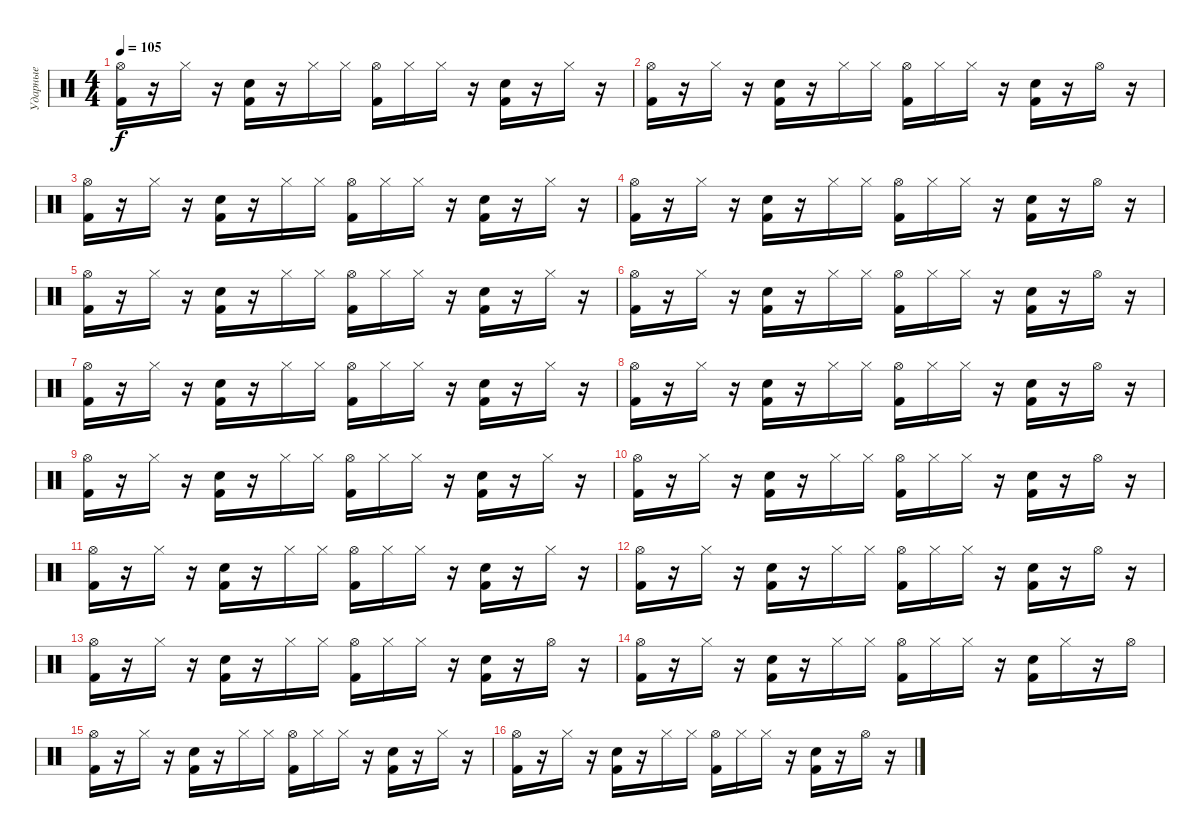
\track ("Ударные" "Ударные") {instrument percussion}
\staff {score}
\articulation defaults
\ts (4 4)
\tempo 105
\clef neutral
\ks c
("Hi-Hat (open)" "Kick (hit) 2").16{dy f} r.16 "Hi-Hat (closed)".16 r.16 ("Snare (hit) 2" "Kick (hit) 2").16 r.16 "Hi-Hat (closed)".16 "Hi-Hat (closed)".16 ("Hi-Hat (open)" "Kick (hit) 2").16 "Hi-Hat (closed)".16 "Hi-Hat (closed)".16 r.16 ("Snare (hit) 2" "Kick (hit) 2").16 r.16 "Hi-Hat (closed)".16 r.16 |
("Hi-Hat (open)" "Kick (hit) 2").16 r.16 "Hi-Hat (closed)".16 r.16 ("Snare (hit) 2" "Kick (hit) 2").16 r.16 "Hi-Hat (closed)".16 "Hi-Hat (closed)".16 ("Hi-Hat (open)" "Kick (hit) 2").16 "Hi-Hat (closed)".16 "Hi-Hat (closed)".16 r.16 ("Snare (hit) 2" "Kick (hit) 2").16 r.16 "Hi-Hat (open)".16 r.16 |
("Hi-Hat (open)" "Kick (hit) 2").16 r.16 "Hi-Hat (closed)".16 r.16 ("Snare (hit) 2" "Kick (hit) 2").16 r.16 "Hi-Hat (closed)".16 "Hi-Hat (closed)".16 ("Hi-Hat (open)" "Kick (hit) 2").16 "Hi-Hat (closed)".16 "Hi-Hat (closed)".16 r.16 ("Snare (hit) 2" "Kick (hit) 2").16 r.16 "Hi-Hat (closed)".16 r.16 |
("Hi-Hat (open)" "Kick (hit) 2").16 r.16 "Hi-Hat (closed)".16 r.16 ("Snare (hit) 2" "Kick (hit) 2").16 r.16 "Hi-Hat (closed)".16 "Hi-Hat (closed)".16 ("Hi-Hat (open)" "Kick (hit) 2").16 "Hi-Hat (closed)".16 "Hi-Hat (closed)".16 r.16 ("Snare (hit) 2" "Kick (hit) 2").16 r.16 "Hi-Hat (open)".16 r.16 |
("Hi-Hat (open)" "Kick (hit) 2").16 r.16 "Hi-Hat (closed)".16 r.16 ("Snare (hit) 2" "Kick (hit) 2").16 r.16 "Hi-Hat (closed)".16 "Hi-Hat (closed)".16 ("Hi-Hat (open)" "Kick (hit) 2").16 "Hi-Hat (closed)".16 "Hi-Hat (closed)".16 r.16 ("Snare (hit) 2" "Kick (hit) 2").16 r.16 "Hi-Hat (closed)".16 r.16 |
("Hi-Hat (open)" "Kick (hit) 2").16 r.16 "Hi-Hat (closed)".16 r.16 ("Snare (hit) 2" "Kick (hit) 2").16 r.16 "Hi-Hat (closed)".16 "Hi-Hat (closed)".16 ("Hi-Hat (open)" "Kick (hit) 2").16 "Hi-Hat (closed)".16 "Hi-Hat (closed)".16 r.16 ("Snare (hit) 2" "Kick (hit) 2").16 r.16 "Hi-Hat (open)".16 r.16 |
("Hi-Hat (open)" "Kick (hit) 2").16 r.16 "Hi-Hat (closed)".16 r.16 ("Snare (hit) 2" "Kick (hit) 2").16 r.16 "Hi-Hat (closed)".16 "Hi-Hat (closed)".16 ("Hi-Hat (open)" "Kick (hit) 2").16 "Hi-Hat (closed)".16 "Hi-Hat (closed)".16 r.16 ("Snare (hit) 2" "Kick (hit) 2").16 r.16 "Hi-Hat (closed)".16 r.16 |
("Hi-Hat (open)" "Kick (hit) 2").16 r.16 "Hi-Hat (closed)".16 r.16 ("Snare (hit) 2" "Kick (hit) 2").16 r.16 "Hi-Hat (closed)".16 "Hi-Hat (closed)".16 ("Hi-Hat (open)" "Kick (hit) 2").16 "Hi-Hat (closed)".16 "Hi-Hat (closed)".16 r.16 ("Snare (hit) 2" "Kick (hit) 2").16 r.16 "Hi-Hat (open)".16 r.16 |
("Hi-Hat (open)" "Kick (hit) 2").16 r.16 "Hi-Hat (closed)".16 r.16 ("Snare (hit) 2" "Kick (hit) 2").16 r.16 "Hi-Hat (closed)".16 "Hi-Hat (closed)".16 ("Hi-Hat (open)" "Kick (hit) 2").16 "Hi-Hat (closed)".16 "Hi-Hat (closed)".16 r.16 ("Snare (hit) 2" "Kick (hit) 2").16 r.16 "Hi-Hat (closed)".16 r.16 |
("Hi-Hat (open)" "Kick (hit) 2").16 r.16 "Hi-Hat (closed)".16 r.16 ("Snare (hit) 2" "Kick (hit) 2").16 r.16 "Hi-Hat (closed)".16 "Hi-Hat (closed)".16 ("Hi-Hat (open)" "Kick (hit) 2").16 "Hi-Hat (closed)".16 "Hi-Hat (closed)".16 r.16 ("Snare (hit) 2" "Kick (hit) 2").16 r.16 "Hi-Hat (open)".16 r.16 |
("Hi-Hat (open)" "Kick (hit) 2").16 r.16 "Hi-Hat (closed)".16 r.16 ("Snare (hit) 2" "Kick (hit) 2").16 r.16 "Hi-Hat (closed)".16 "Hi-Hat (closed)".16 ("Hi-Hat (open)" "Kick (hit) 2").16 "Hi-Hat (closed)".16 "Hi-Hat (closed)".16 r.16 ("Snare (hit) 2" "Kick (hit) 2").16 r.16 "Hi-Hat (closed)".16 r.16 |
("Hi-Hat (open)" "Kick (hit) 2").16 r.16 "Hi-Hat (closed)".16 r.16 ("Snare (hit) 2" "Kick (hit) 2").16 r.16 "Hi-Hat (closed)".16 "Hi-Hat (closed)".16 ("Hi-Hat (open)" "Kick (hit) 2").16 "Hi-Hat (closed)".16 "Hi-Hat (closed)".16 r.16 ("Snare (hit) 2" "Kick (hit) 2").16 r.16 "Hi-Hat (open)".16 r.16 |
("Hi-Hat (open)" "Kick (hit) 2").16 r.16 "Hi-Hat (closed)".16 r.16 ("Snare (hit) 2" "Kick (hit) 2").16 r.16 "Hi-Hat (closed)".16 "Hi-Hat (closed)".16 ("Hi-Hat (open)" "Kick (hit) 2").16 "Hi-Hat (closed)".16 "Hi-Hat (closed)".16 r.16 ("Snare (hit) 2" "Kick (hit) 2").16 r.16 "Hi-Hat (open)".16 r.16 |
("Hi-Hat (open)" "Kick (hit) 2").16 r.16 "Hi-Hat (closed)".16 r.16 ("Snare (hit) 2" "Kick (hit) 2").16 r.16 "Hi-Hat (closed)".16 "Hi-Hat (closed)".16 ("Hi-Hat (open)" "Kick (hit) 2").16 "Hi-Hat (closed)".16 "Hi-Hat (closed)".16 r.16 ("Snare (hit) 2" "Kick (hit) 2").16 "Hi-Hat (closed)".16 r.16 "Hi-Hat (open)".16 |
("Hi-Hat (open)" "Kick (hit) 2").16 r.16 "Hi-Hat (closed)".16 r.16 ("Snare (hit) 2" "Kick (hit) 2").16 r.16 "Hi-Hat (closed)".16 "Hi-Hat (closed)".16 ("Hi-Hat (open)" "Kick (hit) 2").16 "Hi-Hat (closed)".16 "Hi-Hat (closed)".16 r.16 ("Snare (hit) 2" "Kick (hit) 2").16 r.16 "Hi-Hat (closed)".16 r.16 |
("Hi-Hat (open)" "Kick (hit) 2").16 r.16 "Hi-Hat (closed)".16 r.16 ("Snare (hit) 2" "Kick (hit) 2").16 r.16 "Hi-Hat (closed)".16 "Hi-Hat (closed)".16 ("Hi-Hat (open)" "Kick (hit) 2").16 "Hi-Hat (closed)".16 "Hi-Hat (closed)".16 r.16 ("Snare (hit) 2" "Kick (hit) 2").16 r.16 "Hi-Hat (open)".16 r.16
